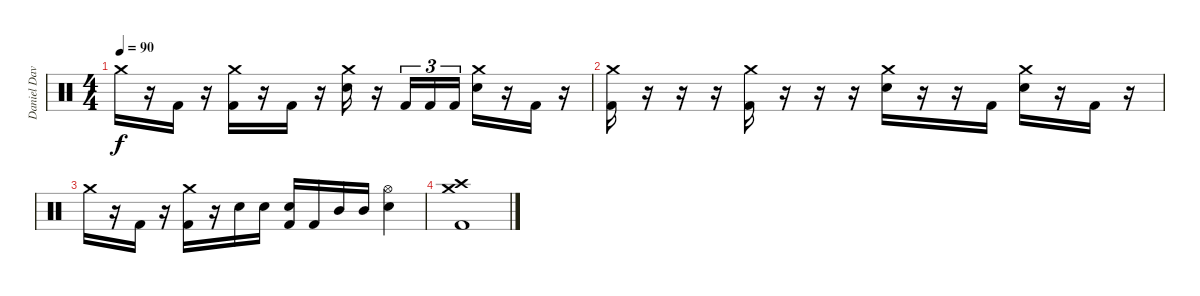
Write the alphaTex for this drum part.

\track ("Daniel Davison" "Daniel Dav") {instrument percussion}
\staff {score}
\articulation defaults
\ts (4 4)
\tempo 90
\clef neutral
\ks c "Crash medium (hit)".16{dy f}
r.16 "Kick (hit) 2".16 r.16 ("Crash medium (hit)" "Kick (hit) 2").16 r.16 "Kick (hit) 2".16 r.16 ("Crash medium (hit)" "Electric Snare (hit)").16 r.16 "Kick (hit) 2".16{tu (3 2)} "Kick (hit) 2".16{tu (3 2)} "Kick (hit) 2".16{tu (3 2)} ("Crash medium (hit)" "Electric Snare (hit)").16 r.16 "Kick (hit) 2".16 r.16 |
("Crash medium (hit)" "Kick (hit) 2").16 r.16 r.16 r.16 ("Crash medium (hit)" "Kick (hit) 2").16 r.16 r.16 r.16 ("Crash medium (hit)" "Electric Snare (hit)").16 r.16 r.16 "Kick (hit) 2".16 ("Crash medium (hit)" "Electric Snare (hit)").16 r.16 "Kick (hit) 2".16 r.16 |
"Crash medium (hit)".16 r.16 "Kick (hit) 2".16 r.16 ("Crash medium (hit)" "Kick (hit) 2").16 r.16 "Electric Snare (hit)".16 "Electric Snare (hit)".16 ("Electric Snare (hit)" "Kick (hit) 2").16 "Kick (hit) 2".16 "Mid Tom (hit)".16 "Mid Tom (hit)".16 ("Hi-Hat (open)" "Electric Snare (hit)").4 |
("Crash medium (hit)" "Crash high (hit)" "Kick (hit) 2").1
